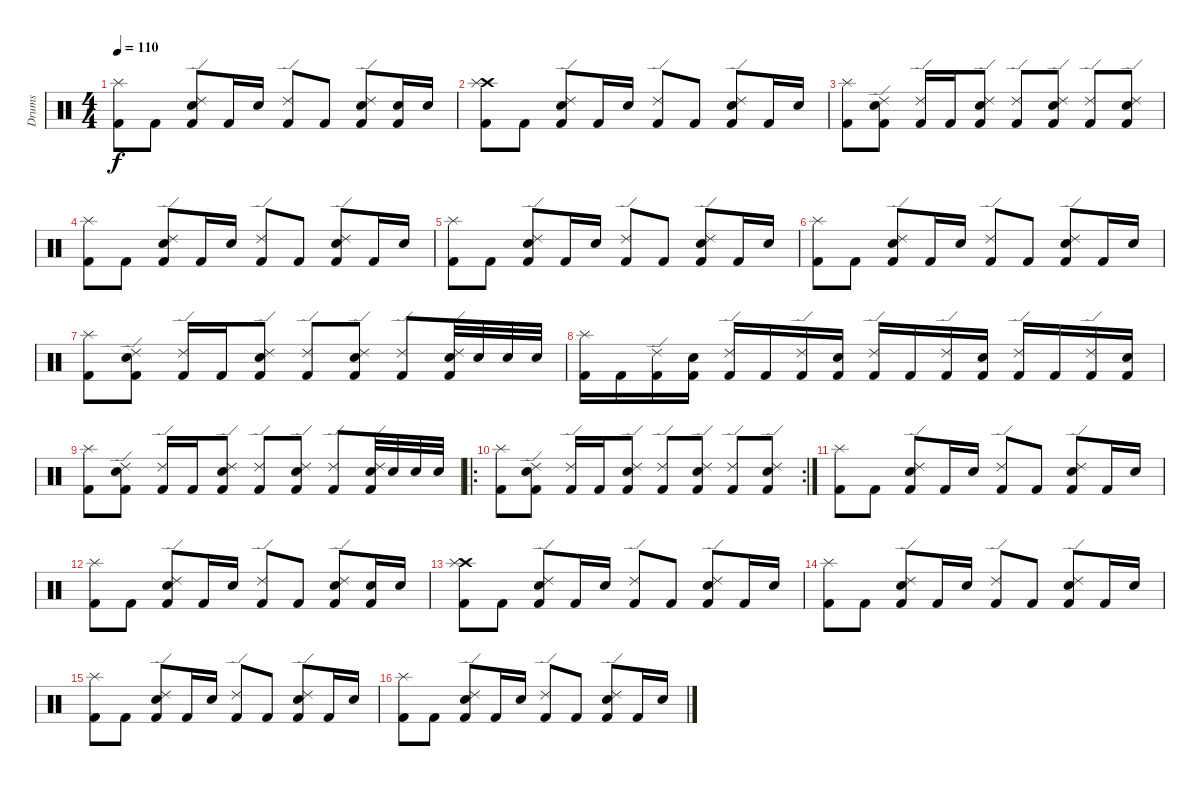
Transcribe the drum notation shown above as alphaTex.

\track ("Drums" "Drums") {instrument percussion}
\staff {score}
\articulation defaults
\ts (4 4)
\tempo 110
\clef neutral
\ks c
("Splash (hit)" "Kick (hit) 2").8{dy f} "Kick (hit) 2".8 ("Electric Snare (hit)" "Ride (edge) 2" "Kick (hit) 2").8 "Kick (hit) 2".16 "Electric Snare (hit)".16 ("Ride (edge) 2" "Kick (hit) 2").8 "Kick (hit) 2".8 ("Electric Snare (hit)" "Ride (edge) 2" "Kick (hit) 2").8 ("Electric Snare (hit)" "Kick (hit) 2").16 "Electric Snare (hit)".16 |
("Crash high (hit)" "Splash (hit)" "Kick (hit) 2").8 "Kick (hit) 2".8 ("Electric Snare (hit)" "Ride (edge) 2" "Kick (hit) 2").8 "Kick (hit) 2".16 "Electric Snare (hit)".16 ("Ride (edge) 2" "Kick (hit) 2").8 "Kick (hit) 2".8 ("Electric Snare (hit)" "Ride (edge) 2" "Kick (hit) 2").8 "Kick (hit) 2".16 "Electric Snare (hit)".16 |
("Splash (hit)" "Kick (hit) 2").8 ("Electric Snare (hit)" "Ride (edge) 2" "Kick (hit) 2").8 ("Ride (edge) 2" "Kick (hit) 2").16 "Kick (hit) 2".16 ("Electric Snare (hit)" "Ride (edge) 2" "Kick (hit) 2").8 ("Ride (edge) 2" "Kick (hit) 2").8 ("Electric Snare (hit)" "Ride (edge) 2" "Kick (hit) 2").8 ("Ride (edge) 2" "Kick (hit) 2").8 ("Electric Snare (hit)" "Ride (edge) 2" "Kick (hit) 2").8 |
("Splash (hit)" "Kick (hit) 2").8 "Kick (hit) 2".8 ("Electric Snare (hit)" "Ride (edge) 2" "Kick (hit) 2").8 "Kick (hit) 2".16 "Electric Snare (hit)".16 ("Ride (edge) 2" "Kick (hit) 2").8 "Kick (hit) 2".8 ("Electric Snare (hit)" "Ride (edge) 2" "Kick (hit) 2").8 "Kick (hit) 2".16 "Electric Snare (hit)".16 |
("Splash (hit)" "Kick (hit) 2").8 "Kick (hit) 2".8 ("Electric Snare (hit)" "Ride (edge) 2" "Kick (hit) 2").8 "Kick (hit) 2".16 "Electric Snare (hit)".16 ("Ride (edge) 2" "Kick (hit) 2").8 "Kick (hit) 2".8 ("Electric Snare (hit)" "Ride (edge) 2" "Kick (hit) 2").8 "Kick (hit) 2".16 "Electric Snare (hit)".16 |
("Splash (hit)" "Kick (hit) 2").8 "Kick (hit) 2".8 ("Electric Snare (hit)" "Ride (edge) 2" "Kick (hit) 2").8 "Kick (hit) 2".16 "Electric Snare (hit)".16 ("Ride (edge) 2" "Kick (hit) 2").8 "Kick (hit) 2".8 ("Electric Snare (hit)" "Ride (edge) 2" "Kick (hit) 2").8 "Kick (hit) 2".16 "Electric Snare (hit)".16 |
("Splash (hit)" "Kick (hit) 2").8 ("Electric Snare (hit)" "Ride (edge) 2" "Kick (hit) 2").8 ("Ride (edge) 2" "Kick (hit) 2").16 "Kick (hit) 2".16 ("Electric Snare (hit)" "Ride (edge) 2" "Kick (hit) 2").8 ("Ride (edge) 2" "Kick (hit) 2").8 ("Electric Snare (hit)" "Ride (edge) 2" "Kick (hit) 2").8 ("Ride (edge) 2" "Kick (hit) 2").8 ("Electric Snare (hit)" "Ride (edge) 2" "Kick (hit) 2").32 "Electric Snare (hit)".32 "Electric Snare (hit)".32 "Electric Snare (hit)".32 |
("Splash (hit)" "Kick (hit) 2").16 "Kick (hit) 2".16 ("Ride (edge) 2" "Kick (hit) 2").16 ("Electric Snare (hit)" "Kick (hit) 2").16 ("Ride (edge) 2" "Kick (hit) 2").16 "Kick (hit) 2".16 ("Ride (edge) 2" "Kick (hit) 2").16 ("Electric Snare (hit)" "Kick (hit) 2").16 ("Ride (edge) 2" "Kick (hit) 2").16 "Kick (hit) 2".16 ("Ride (edge) 2" "Kick (hit) 2").16 ("Electric Snare (hit)" "Kick (hit) 2").16 ("Ride (edge) 2" "Kick (hit) 2").16 "Kick (hit) 2".16 ("Ride (edge) 2" "Kick (hit) 2").16 ("Electric Snare (hit)" "Kick (hit) 2").16 |
("Splash (hit)" "Kick (hit) 2").8 ("Electric Snare (hit)" "Ride (edge) 2" "Kick (hit) 2").8 ("Ride (edge) 2" "Kick (hit) 2").16 "Kick (hit) 2".16 ("Electric Snare (hit)" "Ride (edge) 2" "Kick (hit) 2").8 ("Ride (edge) 2" "Kick (hit) 2").8 ("Electric Snare (hit)" "Ride (edge) 2" "Kick (hit) 2").8 ("Ride (edge) 2" "Kick (hit) 2").8 ("Electric Snare (hit)" "Ride (edge) 2" "Kick (hit) 2").32 "Electric Snare (hit)".32 "Electric Snare (hit)".32 "Electric Snare (hit)".32 |
\ro
\rc 2
("Splash (hit)" "Kick (hit) 2").8 ("Electric Snare (hit)" "Ride (edge) 2" "Kick (hit) 2").8 ("Ride (edge) 2" "Kick (hit) 2").16 "Kick (hit) 2".16 ("Electric Snare (hit)" "Ride (edge) 2" "Kick (hit) 2").8 ("Ride (edge) 2" "Kick (hit) 2").8 ("Electric Snare (hit)" "Ride (edge) 2" "Kick (hit) 2").8 ("Ride (edge) 2" "Kick (hit) 2").8 ("Electric Snare (hit)" "Ride (edge) 2" "Kick (hit) 2").8 |
("Splash (hit)" "Kick (hit) 2").8 "Kick (hit) 2".8 ("Electric Snare (hit)" "Ride (edge) 2" "Kick (hit) 2").8 "Kick (hit) 2".16 "Electric Snare (hit)".16 ("Ride (edge) 2" "Kick (hit) 2").8 "Kick (hit) 2".8 ("Electric Snare (hit)" "Ride (edge) 2" "Kick (hit) 2").8 "Kick (hit) 2".16 "Electric Snare (hit)".16 |
("Splash (hit)" "Kick (hit) 2").8 "Kick (hit) 2".8 ("Electric Snare (hit)" "Ride (edge) 2" "Kick (hit) 2").8 "Kick (hit) 2".16 "Electric Snare (hit)".16 ("Ride (edge) 2" "Kick (hit) 2").8 "Kick (hit) 2".8 ("Electric Snare (hit)" "Ride (edge) 2" "Kick (hit) 2").8 ("Electric Snare (hit)" "Kick (hit) 2").16 "Electric Snare (hit)".16 |
("Crash high (hit)" "Splash (hit)" "Kick (hit) 2").8 "Kick (hit) 2".8 ("Electric Snare (hit)" "Ride (edge) 2" "Kick (hit) 2").8 "Kick (hit) 2".16 "Electric Snare (hit)".16 ("Ride (edge) 2" "Kick (hit) 2").8 "Kick (hit) 2".8 ("Electric Snare (hit)" "Ride (edge) 2" "Kick (hit) 2").8 "Kick (hit) 2".16 "Electric Snare (hit)".16 |
("Splash (hit)" "Kick (hit) 2").8 "Kick (hit) 2".8 ("Electric Snare (hit)" "Ride (edge) 2" "Kick (hit) 2").8 "Kick (hit) 2".16 "Electric Snare (hit)".16 ("Ride (edge) 2" "Kick (hit) 2").8 "Kick (hit) 2".8 ("Electric Snare (hit)" "Ride (edge) 2" "Kick (hit) 2").8 "Kick (hit) 2".16 "Electric Snare (hit)".16 |
("Splash (hit)" "Kick (hit) 2").8 "Kick (hit) 2".8 ("Electric Snare (hit)" "Ride (edge) 2" "Kick (hit) 2").8 "Kick (hit) 2".16 "Electric Snare (hit)".16 ("Ride (edge) 2" "Kick (hit) 2").8 "Kick (hit) 2".8 ("Electric Snare (hit)" "Ride (edge) 2" "Kick (hit) 2").8 "Kick (hit) 2".16 "Electric Snare (hit)".16 |
("Splash (hit)" "Kick (hit) 2").8 "Kick (hit) 2".8 ("Electric Snare (hit)" "Ride (edge) 2" "Kick (hit) 2").8 "Kick (hit) 2".16 "Electric Snare (hit)".16 ("Ride (edge) 2" "Kick (hit) 2").8 "Kick (hit) 2".8 ("Electric Snare (hit)" "Ride (edge) 2" "Kick (hit) 2").8 "Kick (hit) 2".16 "Electric Snare (hit)".16
